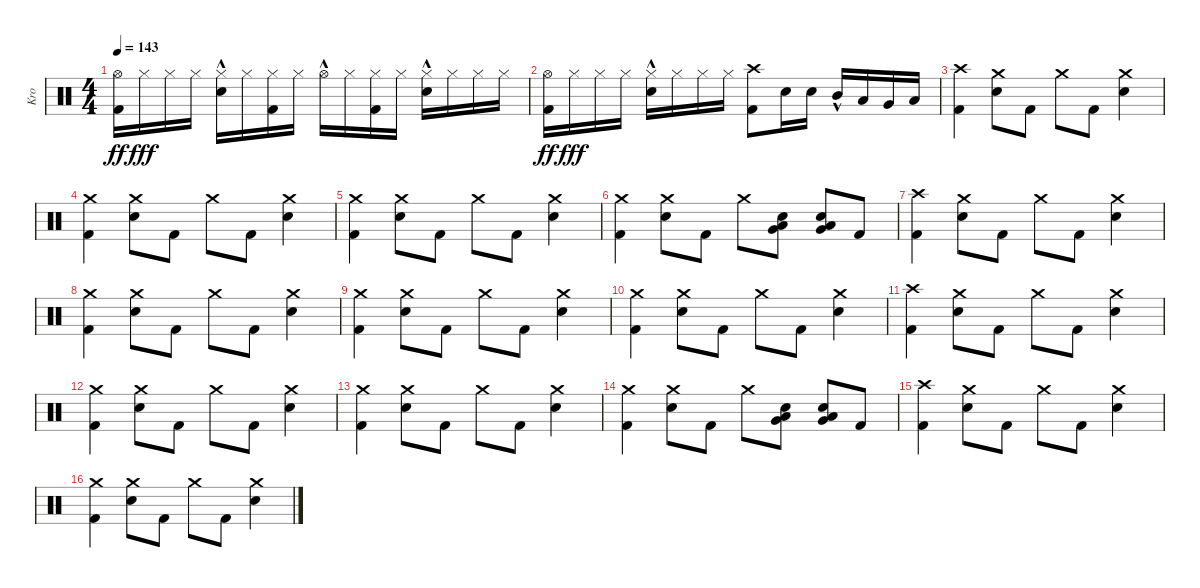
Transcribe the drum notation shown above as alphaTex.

\track ("Kro" "Kro") {instrument percussion}
\staff {score}
\articulation defaults
\ts (4 4)
\tempo 143
\clef neutral
\ks c
("Hi-Hat (open)" "Kick (hit) 2").16{dy ff} "Hi-Hat (closed)".16{dy fff} "Hi-Hat (closed)".16 "Hi-Hat (closed)".16 ("Hi-Hat (closed)"{hac} "Electric Snare (hit)").16 "Hi-Hat (closed)".16 ("Hi-Hat (closed)" "Kick (hit) 2").16 "Hi-Hat (closed)".16 "Hi-Hat (open)"{hac}.16 "Hi-Hat (closed)".16 ("Hi-Hat (closed)" "Kick (hit) 2").16 "Hi-Hat (closed)".16 ("Hi-Hat (closed)"{hac} "Electric Snare (hit)").16 "Hi-Hat (closed)".16 "Hi-Hat (closed)".16 "Hi-Hat (closed)".16 |
("Hi-Hat (open)" "Kick (hit) 2").16{dy ff} "Hi-Hat (closed)".16{dy fff} "Hi-Hat (closed)".16 "Hi-Hat (closed)".16 ("Hi-Hat (closed)"{hac} "Electric Snare (hit)").16 "Hi-Hat (closed)".16 "Hi-Hat (closed)".16 "Hi-Hat (closed)".16 ("Crash high (hit)" "Kick (hit) 2").8 "Electric Snare (hit)".16 "Electric Snare (hit)".16 "Mid Tom (hit)"{hac}.16 "Low Tom (hit)".16 "Very Low Tom (hit)".16 "Low Floor Tom (hit)".16 |
("Crash high (hit)" "Kick (hit) 2").4 ("Crash medium (hit)" "Electric Snare (hit)").8 "Kick (hit) 2".8 "Crash medium (hit)".8 "Kick (hit) 2".8 ("Crash medium (hit)" "Electric Snare (hit)").4 |
("Crash medium (hit)" "Kick (hit) 2").4 ("Crash medium (hit)" "Electric Snare (hit)").8 "Kick (hit) 2".8 "Crash medium (hit)".8 "Kick (hit) 2".8 ("Crash medium (hit)" "Electric Snare (hit)").4 |
("Crash medium (hit)" "Kick (hit) 2").4 ("Crash medium (hit)" "Electric Snare (hit)").8 "Kick (hit) 2".8 "Crash medium (hit)".8 "Kick (hit) 2".8 ("Crash medium (hit)" "Electric Snare (hit)").4 |
("Crash medium (hit)" "Kick (hit) 2").4 ("Crash medium (hit)" "Electric Snare (hit)").8 "Kick (hit) 2".8 "Crash medium (hit)".8 ("Electric Snare (hit)" "Low Tom (hit)" "Very Low Tom (hit)").8 ("Electric Snare (hit)" "Low Tom (hit)" "Very Low Tom (hit)").8 "Kick (hit) 2".8 |
("Crash high (hit)" "Kick (hit) 2").4 ("Crash medium (hit)" "Electric Snare (hit)").8 "Kick (hit) 2".8 "Crash medium (hit)".8 "Kick (hit) 2".8 ("Crash medium (hit)" "Electric Snare (hit)").4 |
("Crash medium (hit)" "Kick (hit) 2").4 ("Crash medium (hit)" "Electric Snare (hit)").8 "Kick (hit) 2".8 "Crash medium (hit)".8 "Kick (hit) 2".8 ("Crash medium (hit)" "Electric Snare (hit)").4 |
("Crash medium (hit)" "Kick (hit) 2").4 ("Crash medium (hit)" "Electric Snare (hit)").8 "Kick (hit) 2".8 "Crash medium (hit)".8 "Kick (hit) 2".8 ("Crash medium (hit)" "Electric Snare (hit)").4 |
("Crash medium (hit)" "Kick (hit) 2").4 ("Crash medium (hit)" "Electric Snare (hit)").8 "Kick (hit) 2".8 "Crash medium (hit)".8 "Kick (hit) 2".8 ("Crash medium (hit)" "Electric Snare (hit)").4 |
("Crash high (hit)" "Kick (hit) 2").4 ("Crash medium (hit)" "Electric Snare (hit)").8 "Kick (hit) 2".8 "Crash medium (hit)".8 "Kick (hit) 2".8 ("Crash medium (hit)" "Electric Snare (hit)").4 |
("Crash medium (hit)" "Kick (hit) 2").4 ("Crash medium (hit)" "Electric Snare (hit)").8 "Kick (hit) 2".8 "Crash medium (hit)".8 "Kick (hit) 2".8 ("Crash medium (hit)" "Electric Snare (hit)").4 |
("Crash medium (hit)" "Kick (hit) 2").4 ("Crash medium (hit)" "Electric Snare (hit)").8 "Kick (hit) 2".8 "Crash medium (hit)".8 "Kick (hit) 2".8 ("Crash medium (hit)" "Electric Snare (hit)").4 |
("Crash medium (hit)" "Kick (hit) 2").4 ("Crash medium (hit)" "Electric Snare (hit)").8 "Kick (hit) 2".8 "Crash medium (hit)".8 ("Electric Snare (hit)" "Low Tom (hit)" "Very Low Tom (hit)").8 ("Electric Snare (hit)" "Low Tom (hit)" "Very Low Tom (hit)").8 "Kick (hit) 2".8 |
("Crash high (hit)" "Kick (hit) 2").4 ("Crash medium (hit)" "Electric Snare (hit)").8 "Kick (hit) 2".8 "Crash medium (hit)".8 "Kick (hit) 2".8 ("Crash medium (hit)" "Electric Snare (hit)").4 |
("Crash medium (hit)" "Kick (hit) 2").4 ("Crash medium (hit)" "Electric Snare (hit)").8 "Kick (hit) 2".8 "Crash medium (hit)".8 "Kick (hit) 2".8 ("Crash medium (hit)" "Electric Snare (hit)").4
